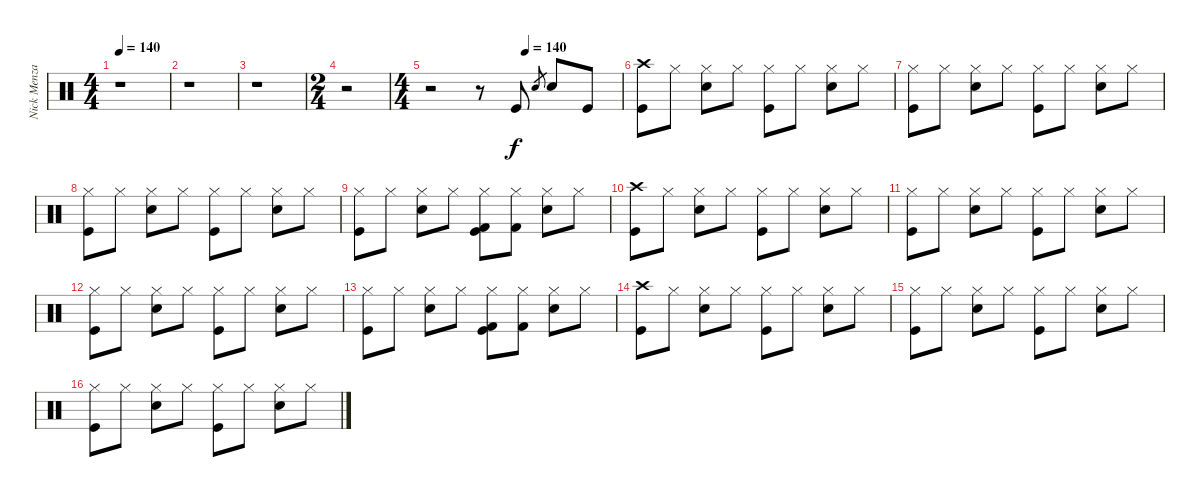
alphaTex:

\track ("Nick Menza (Drums)" "Nick Menza") {instrument percussion}
\staff {score}
\articulation defaults
\ts (4 4)
\tempo 140
\tempo 70
\tempo 140
\clef neutral
\ks c
r.1{dy f} |
r.1 |
r.1 |
\ts (2 4)
r.2 |
\ts (4 4)
\tempo (140 0.5)
r.2 r.8 "Kick (hit)".8 "Snare (hit) 2".8{gr} "Snare (hit) 2".8 "Kick (hit)".8 |
("Crash high (hit)" "Kick (hit)").8 "Hi-Hat (closed)".8 ("Hi-Hat (closed)" "Snare (hit) 2").8 "Hi-Hat (closed)".8 ("Hi-Hat (closed)" "Kick (hit)").8 "Hi-Hat (closed)".8 ("Hi-Hat (closed)" "Snare (hit) 2").8 "Hi-Hat (closed)".8 |
("Hi-Hat (closed)" "Kick (hit)").8 "Hi-Hat (closed)".8 ("Hi-Hat (closed)" "Snare (hit) 2").8 "Hi-Hat (closed)".8 ("Hi-Hat (closed)" "Kick (hit)").8 "Hi-Hat (closed)".8 ("Hi-Hat (closed)" "Snare (hit) 2").8 "Hi-Hat (closed)".8 |
("Hi-Hat (closed)" "Kick (hit)").8 "Hi-Hat (closed)".8 ("Hi-Hat (closed)" "Snare (hit) 2").8 "Hi-Hat (closed)".8 ("Hi-Hat (closed)" "Kick (hit)").8 "Hi-Hat (closed)".8 ("Hi-Hat (closed)" "Snare (hit) 2").8 "Hi-Hat (closed)".8 |
("Hi-Hat (closed)" "Kick (hit)").8 "Hi-Hat (closed)".8 ("Hi-Hat (closed)" "Snare (hit) 2").8 "Hi-Hat (closed)".8 ("Hi-Hat (closed)" "Kick (hit) 2" "Kick (hit)").8 ("Hi-Hat (closed)" "Kick (hit) 2").8 ("Hi-Hat (closed)" "Snare (hit) 2").8 "Hi-Hat (closed)".8 |
("Crash high (hit)" "Kick (hit)").8 "Hi-Hat (closed)".8 ("Hi-Hat (closed)" "Snare (hit) 2").8 "Hi-Hat (closed)".8 ("Hi-Hat (closed)" "Kick (hit)").8 "Hi-Hat (closed)".8 ("Hi-Hat (closed)" "Snare (hit) 2").8 "Hi-Hat (closed)".8 |
("Hi-Hat (closed)" "Kick (hit)").8 "Hi-Hat (closed)".8 ("Hi-Hat (closed)" "Snare (hit) 2").8 "Hi-Hat (closed)".8 ("Hi-Hat (closed)" "Kick (hit)").8 "Hi-Hat (closed)".8 ("Hi-Hat (closed)" "Snare (hit) 2").8 "Hi-Hat (closed)".8 |
("Hi-Hat (closed)" "Kick (hit)").8 "Hi-Hat (closed)".8 ("Hi-Hat (closed)" "Snare (hit) 2").8 "Hi-Hat (closed)".8 ("Hi-Hat (closed)" "Kick (hit)").8 "Hi-Hat (closed)".8 ("Hi-Hat (closed)" "Snare (hit) 2").8 "Hi-Hat (closed)".8 |
("Hi-Hat (closed)" "Kick (hit)").8 "Hi-Hat (closed)".8 ("Hi-Hat (closed)" "Snare (hit) 2").8 "Hi-Hat (closed)".8 ("Hi-Hat (closed)" "Kick (hit) 2" "Kick (hit)").8 ("Hi-Hat (closed)" "Kick (hit) 2").8 ("Hi-Hat (closed)" "Snare (hit) 2").8 "Hi-Hat (closed)".8 |
("Crash high (hit)" "Kick (hit)").8 "Hi-Hat (closed)".8 ("Hi-Hat (closed)" "Snare (hit) 2").8 "Hi-Hat (closed)".8 ("Hi-Hat (closed)" "Kick (hit)").8 "Hi-Hat (closed)".8 ("Hi-Hat (closed)" "Snare (hit) 2").8 "Hi-Hat (closed)".8 |
("Hi-Hat (closed)" "Kick (hit)").8 "Hi-Hat (closed)".8 ("Hi-Hat (closed)" "Snare (hit) 2").8 "Hi-Hat (closed)".8 ("Hi-Hat (closed)" "Kick (hit)").8 "Hi-Hat (closed)".8 ("Hi-Hat (closed)" "Snare (hit) 2").8 "Hi-Hat (closed)".8 |
("Hi-Hat (closed)" "Kick (hit)").8 "Hi-Hat (closed)".8 ("Hi-Hat (closed)" "Snare (hit) 2").8 "Hi-Hat (closed)".8 ("Hi-Hat (closed)" "Kick (hit)").8 "Hi-Hat (closed)".8 ("Hi-Hat (closed)" "Snare (hit) 2").8 "Hi-Hat (closed)".8
